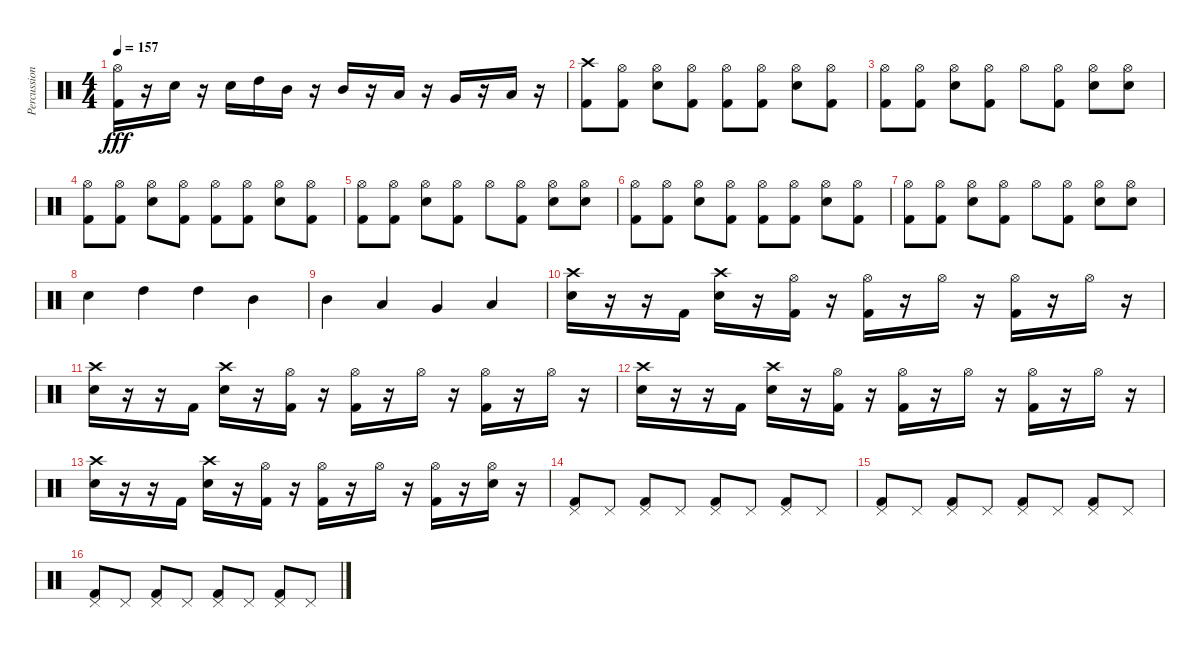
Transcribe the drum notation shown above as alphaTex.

\track ("Percussion" "Percussion") {instrument percussion}
\staff {score}
\articulation defaults
\ts (4 4)
\tempo 157
\clef neutral
\ks c
("Hi-Hat (open)" "Kick (hit) 2").16{dy fff} r.16 "Electric Snare (hit)".16 r.16 "Electric Snare (hit)".16 "High Tom (hit)".16 "Mid Tom (hit)".16 r.16 "Mid Tom (hit)".16 r.16 "Low Tom (hit)".16 r.16 "Very Low Tom (hit)".16 r.16 "Low Floor Tom (hit)".16 r.16 |
("Crash high (hit)" "Kick (hit) 2").8 ("Hi-Hat (open)" "Kick (hit) 2").8 ("Hi-Hat (open)" "Electric Snare (hit)").8 ("Hi-Hat (open)" "Kick (hit) 2").8 ("Hi-Hat (open)" "Kick (hit) 2").8 ("Hi-Hat (open)" "Kick (hit) 2").8 ("Hi-Hat (open)" "Electric Snare (hit)").8 ("Hi-Hat (open)" "Kick (hit) 2").8 |
("Hi-Hat (open)" "Kick (hit) 2").8 ("Hi-Hat (open)" "Kick (hit) 2").8 ("Hi-Hat (open)" "Electric Snare (hit)").8 ("Hi-Hat (open)" "Kick (hit) 2").8 "Hi-Hat (open)".8 ("Hi-Hat (open)" "Kick (hit) 2").8 ("Hi-Hat (open)" "Electric Snare (hit)").8 ("Hi-Hat (open)" "Electric Snare (hit)").8 |
("Hi-Hat (open)" "Kick (hit) 2").8 ("Hi-Hat (open)" "Kick (hit) 2").8 ("Hi-Hat (open)" "Electric Snare (hit)").8 ("Hi-Hat (open)" "Kick (hit) 2").8 ("Hi-Hat (open)" "Kick (hit) 2").8 ("Hi-Hat (open)" "Kick (hit) 2").8 ("Hi-Hat (open)" "Electric Snare (hit)").8 ("Hi-Hat (open)" "Kick (hit) 2").8 |
("Hi-Hat (open)" "Kick (hit) 2").8 ("Hi-Hat (open)" "Kick (hit) 2").8 ("Hi-Hat (open)" "Electric Snare (hit)").8 ("Hi-Hat (open)" "Kick (hit) 2").8 "Hi-Hat (open)".8 ("Hi-Hat (open)" "Kick (hit) 2").8 ("Hi-Hat (open)" "Electric Snare (hit)").8 ("Hi-Hat (open)" "Electric Snare (hit)").8 |
("Hi-Hat (open)" "Kick (hit) 2").8 ("Hi-Hat (open)" "Kick (hit) 2").8 ("Hi-Hat (open)" "Electric Snare (hit)").8 ("Hi-Hat (open)" "Kick (hit) 2").8 ("Hi-Hat (open)" "Kick (hit) 2").8 ("Hi-Hat (open)" "Kick (hit) 2").8 ("Hi-Hat (open)" "Electric Snare (hit)").8 ("Hi-Hat (open)" "Kick (hit) 2").8 |
("Hi-Hat (open)" "Kick (hit) 2").8 ("Hi-Hat (open)" "Kick (hit) 2").8 ("Hi-Hat (open)" "Electric Snare (hit)").8 ("Hi-Hat (open)" "Kick (hit) 2").8 "Hi-Hat (open)".8 ("Hi-Hat (open)" "Kick (hit) 2").8 ("Hi-Hat (open)" "Electric Snare (hit)").8 ("Hi-Hat (open)" "Electric Snare (hit)").8 |
"Electric Snare (hit)".4 "High Tom (hit)".4 "High Tom (hit)".4 "Mid Tom (hit)".4 |
"Mid Tom (hit)".4 "Low Tom (hit)".4 "Very Low Tom (hit)".4 "Low Floor Tom (hit)".4 |
("Crash high (hit)" "Electric Snare (hit)").16 r.16 r.16 "Kick (hit) 2".16 ("Crash high (hit)" "Electric Snare (hit)").16 r.16 ("Hi-Hat (open)" "Kick (hit) 2").16 r.16 ("Hi-Hat (open)" "Kick (hit) 2").16 r.16 "Hi-Hat (open)".16 r.16 ("Hi-Hat (open)" "Kick (hit) 2").16 r.16 "Hi-Hat (open)".16 r.16 |
("Crash high (hit)" "Electric Snare (hit)").16 r.16 r.16 "Kick (hit) 2".16 ("Crash high (hit)" "Electric Snare (hit)").16 r.16 ("Hi-Hat (open)" "Kick (hit) 2").16 r.16 ("Hi-Hat (open)" "Kick (hit) 2").16 r.16 "Hi-Hat (open)".16 r.16 ("Hi-Hat (open)" "Kick (hit) 2").16 r.16 "Hi-Hat (open)".16 r.16 |
("Crash high (hit)" "Electric Snare (hit)").16 r.16 r.16 "Kick (hit) 2".16 ("Crash high (hit)" "Electric Snare (hit)").16 r.16 ("Hi-Hat (open)" "Kick (hit) 2").16 r.16 ("Hi-Hat (open)" "Kick (hit) 2").16 r.16 "Hi-Hat (open)".16 r.16 ("Hi-Hat (open)" "Kick (hit) 2").16 r.16 "Hi-Hat (open)".16 r.16 |
("Crash high (hit)" "Electric Snare (hit)").16 r.16 r.16 "Kick (hit) 2".16 ("Crash high (hit)" "Electric Snare (hit)").16 r.16 ("Hi-Hat (open)" "Kick (hit) 2").16 r.16 ("Hi-Hat (open)" "Kick (hit) 2").16 r.16 "Hi-Hat (open)".16 r.16 ("Hi-Hat (open)" "Kick (hit) 2").16 r.16 ("Hi-Hat (open)" "Electric Snare (hit)").16 r.16 |
("Pedal Hi-Hat (hit)" "Kick (hit) 2").8 "Pedal Hi-Hat (hit)".8 ("Pedal Hi-Hat (hit)" "Kick (hit) 2").8 "Pedal Hi-Hat (hit)".8 ("Pedal Hi-Hat (hit)" "Kick (hit) 2").8 "Pedal Hi-Hat (hit)".8 ("Pedal Hi-Hat (hit)" "Kick (hit) 2").8 "Pedal Hi-Hat (hit)".8 |
("Pedal Hi-Hat (hit)" "Kick (hit) 2").8 "Pedal Hi-Hat (hit)".8 ("Pedal Hi-Hat (hit)" "Kick (hit) 2").8 "Pedal Hi-Hat (hit)".8 ("Pedal Hi-Hat (hit)" "Kick (hit) 2").8 "Pedal Hi-Hat (hit)".8 ("Pedal Hi-Hat (hit)" "Kick (hit) 2").8 "Pedal Hi-Hat (hit)".8 |
("Pedal Hi-Hat (hit)" "Kick (hit) 2").8 "Pedal Hi-Hat (hit)".8 ("Pedal Hi-Hat (hit)" "Kick (hit) 2").8 "Pedal Hi-Hat (hit)".8 ("Pedal Hi-Hat (hit)" "Kick (hit) 2").8 "Pedal Hi-Hat (hit)".8 ("Pedal Hi-Hat (hit)" "Kick (hit) 2").8 "Pedal Hi-Hat (hit)".8
